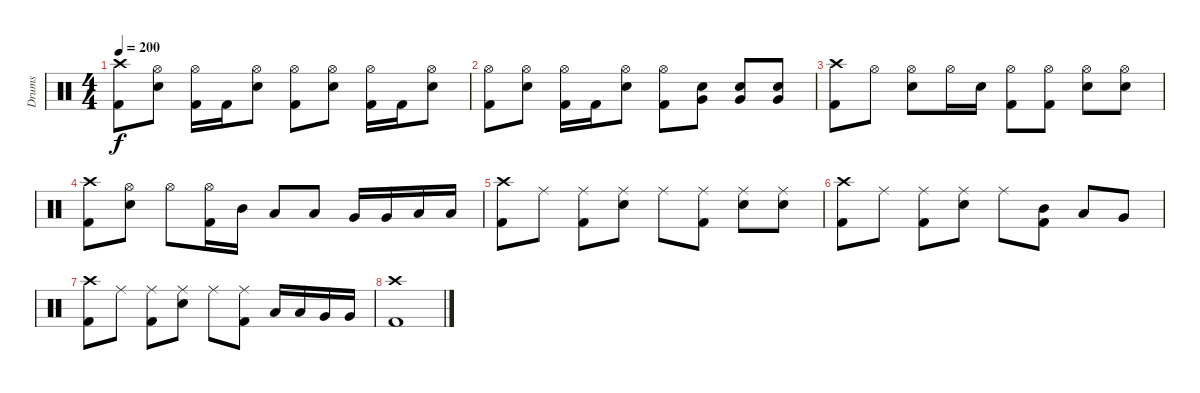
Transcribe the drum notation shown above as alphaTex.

\track ("Drums" "Drums") {instrument percussion}
\staff {score}
\articulation defaults
\ts (4 4)
\tempo 200
\clef neutral
\ks c
("Crash high (hit)" "Kick (hit) 2").8{dy f} ("Hi-Hat (open)" "Electric Snare (hit)").8 ("Hi-Hat (open)" "Kick (hit) 2").16 "Kick (hit) 2".16 ("Hi-Hat (open)" "Electric Snare (hit)").8 ("Hi-Hat (open)" "Kick (hit) 2").8 ("Hi-Hat (open)" "Electric Snare (hit)").8 ("Hi-Hat (open)" "Kick (hit) 2").16 "Kick (hit) 2".16 ("Hi-Hat (open)" "Electric Snare (hit)").8 |
("Hi-Hat (open)" "Kick (hit) 2").8 ("Hi-Hat (open)" "Electric Snare (hit)").8 ("Hi-Hat (open)" "Kick (hit) 2").16 "Kick (hit) 2".16 ("Hi-Hat (open)" "Electric Snare (hit)").8 ("Hi-Hat (open)" "Kick (hit) 2").8 ("Very Low Tom (hit)" "Electric Snare (hit)").8 ("Very Low Tom (hit)" "Electric Snare (hit)").8 ("Very Low Tom (hit)" "Electric Snare (hit)").8 |
("Crash high (hit)" "Kick (hit) 2").8 "Hi-Hat (open)".8 ("Hi-Hat (open)" "Electric Snare (hit)").8 "Hi-Hat (open)".16 "Electric Snare (hit)".16 ("Hi-Hat (open)" "Kick (hit) 2").8 ("Hi-Hat (open)" "Kick (hit) 2").8 ("Hi-Hat (open)" "Electric Snare (hit)").8 ("Hi-Hat (open)" "Electric Snare (hit)").8 |
("Crash high (hit)" "Kick (hit) 2").8 ("Hi-Hat (open)" "Electric Snare (hit)").8 "Hi-Hat (open)".8 ("Hi-Hat (open)" "Kick (hit) 2").16 "Mid Tom (hit)".16 "Low Tom (hit)".8 "Low Tom (hit)".8 "Very Low Tom (hit)".16 "Very Low Tom (hit)".16 "Low Floor Tom (hit)".16 "Low Floor Tom (hit)".16 |
("Crash high (hit)" "Kick (hit) 2").8 "Ride (middle)".8 ("Ride (middle)" "Kick (hit) 2").8 ("Ride (middle)" "Electric Snare (hit)").8 "Ride (middle)".8 ("Ride (middle)" "Kick (hit) 2").8 ("Ride (middle)" "Electric Snare (hit)").8 ("Ride (middle)" "Electric Snare (hit)").8 |
("Crash high (hit)" "Kick (hit) 2").8 "Ride (middle)".8 ("Ride (middle)" "Kick (hit) 2").8 ("Ride (middle)" "Electric Snare (hit)").8 "Ride (middle)".8 ("Mid Tom (hit)" "Kick (hit) 2").8 "Low Tom (hit)".8 "Very Low Tom (hit)".8 |
("Crash high (hit)" "Kick (hit) 2").8 "Ride (middle)".8 ("Ride (middle)" "Kick (hit) 2").8 ("Ride (middle)" "Electric Snare (hit)").8 "Ride (middle)".8 ("Ride (middle)" "Kick (hit) 2").8 "Low Tom (hit)".16 "Low Tom (hit)".16 "Very Low Tom (hit)".16 "Very Low Tom (hit)".16 |
("Crash high (hit)" "Kick (hit) 2").1
